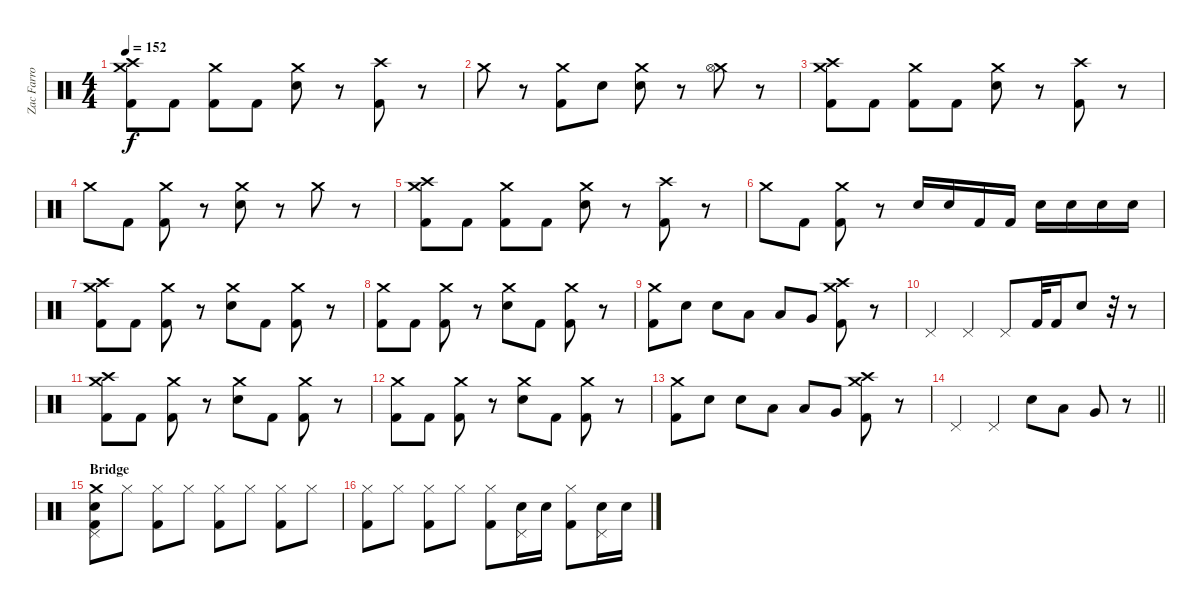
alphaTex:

\track ("Zac Farro - Drums" "Zac Farro ") {instrument percussion}
\staff {score}
\articulation defaults
\ts (4 4)
\tempo 152
\clef neutral
\ks c
("Crash high (hit)" "Crash medium (hit)" "Kick (hit) 2").8{dy f} "Kick (hit) 2".8 ("Crash medium (hit)" "Kick (hit) 2").8 "Kick (hit) 2".8 ("Crash medium (hit)" "Electric Snare (hit)").8 r.8 ("Crash high (hit)" "Kick (hit) 2").8 r.8 |
"Crash medium (hit)".8 r.8 ("Crash medium (hit)" "Kick (hit) 2").8 "Electric Snare (hit)".8 ("Crash medium (hit)" "Electric Snare (hit)").8 r.8 ("Crash medium (hit)" "Hi-Hat (open)").8 r.8 |
("Crash high (hit)" "Crash medium (hit)" "Kick (hit) 2").8 "Kick (hit) 2".8 ("Crash medium (hit)" "Kick (hit) 2").8 "Kick (hit) 2".8 ("Crash medium (hit)" "Electric Snare (hit)").8 r.8 ("Crash high (hit)" "Kick (hit) 2").8 r.8 |
"Crash medium (hit)".8 "Kick (hit) 2".8 ("Crash medium (hit)" "Kick (hit) 2").8 r.8 ("Crash medium (hit)" "Electric Snare (hit)").8 r.8 "Crash medium (hit)".8 r.8 |
("Crash high (hit)" "Crash medium (hit)" "Kick (hit) 2").8 "Kick (hit) 2".8 ("Crash medium (hit)" "Kick (hit) 2").8 "Kick (hit) 2".8 ("Crash medium (hit)" "Electric Snare (hit)").8 r.8 ("Crash high (hit)" "Kick (hit) 2").8 r.8 |
"Crash medium (hit)".8 "Kick (hit) 2".8 ("Crash medium (hit)" "Kick (hit) 2").8 r.8 "Electric Snare (hit)".16 "Electric Snare (hit)".16 "Kick (hit) 2".16 "Kick (hit) 2".16 "Electric Snare (hit)".16 "Electric Snare (hit)".16 "Electric Snare (hit)".16 "Electric Snare (hit)".16 |
("Crash high (hit)" "Crash medium (hit)" "Kick (hit) 2").8 "Kick (hit) 2".8 ("Crash medium (hit)" "Kick (hit) 2").8 r.8 ("Crash medium (hit)" "Electric Snare (hit)").8 "Kick (hit) 2".8 ("Crash medium (hit)" "Kick (hit) 2").8 r.8 |
("Crash medium (hit)" "Kick (hit) 2").8 "Kick (hit) 2".8 ("Crash medium (hit)" "Kick (hit) 2").8 r.8 ("Crash medium (hit)" "Electric Snare (hit)").8 "Kick (hit) 2".8 ("Crash medium (hit)" "Kick (hit) 2").8 r.8 |
("Crash medium (hit)" "Kick (hit) 2").8 "Electric Snare (hit)".8 "Electric Snare (hit)".8 "Low Tom (hit)".8 "Low Tom (hit)".8 "Very Low Tom (hit)".8 ("Crash high (hit)" "Crash medium (hit)" "Kick (hit) 2").8 r.8 |
"Pedal Hi-Hat (hit)".4 "Pedal Hi-Hat (hit)".4 "Pedal Hi-Hat (hit)".8 "Kick (hit) 2".32 "Kick (hit) 2".16 "Electric Snare (hit)".8 r.32 r.8 |
("Crash high (hit)" "Crash medium (hit)" "Kick (hit) 2").8 "Kick (hit) 2".8 ("Crash medium (hit)" "Kick (hit) 2").8 r.8 ("Crash medium (hit)" "Electric Snare (hit)").8 "Kick (hit) 2".8 ("Crash medium (hit)" "Kick (hit) 2").8 r.8 |
("Crash medium (hit)" "Kick (hit) 2").8 "Kick (hit) 2".8 ("Crash medium (hit)" "Kick (hit) 2").8 r.8 ("Crash medium (hit)" "Electric Snare (hit)").8 "Kick (hit) 2".8 ("Crash medium (hit)" "Kick (hit) 2").8 r.8 |
("Crash medium (hit)" "Kick (hit) 2").8 "Electric Snare (hit)".8 "Electric Snare (hit)".8 "Low Tom (hit)".8 "Low Tom (hit)".8 "Very Low Tom (hit)".8 ("Crash high (hit)" "Crash medium (hit)" "Kick (hit) 2").8 r.8 |
\barLineRight lightlight "Pedal Hi-Hat (hit)".4 "Pedal Hi-Hat (hit)".4 "Electric Snare (hit)".8 "Low Tom (hit)".8 "Very Low Tom (hit)".8
r.8 |
\section ("" "Bridge")
("Crash medium (hit)" "Pedal Hi-Hat (hit)" "Electric Snare (hit)" "Kick (hit) 2").8 "Hi-Hat (closed)".8 ("Hi-Hat (closed)" "Kick (hit) 2").8 "Hi-Hat (closed)".8 ("Hi-Hat (closed)" "Kick (hit) 2").8 "Hi-Hat (closed)".8 ("Hi-Hat (closed)" "Kick (hit) 2").8 "Hi-Hat (closed)".8 |
("Hi-Hat (closed)" "Kick (hit) 2").8 "Hi-Hat (closed)".8 ("Hi-Hat (closed)" "Kick (hit) 2").8 "Hi-Hat (closed)".8 ("Hi-Hat (closed)" "Kick (hit) 2").8 ("Pedal Hi-Hat (hit)" "Electric Snare (hit)").16 "Electric Snare (hit)".16 ("Hi-Hat (closed)" "Kick (hit) 2").8 ("Pedal Hi-Hat (hit)" "Electric Snare (hit)").16 "Electric Snare (hit)".16
